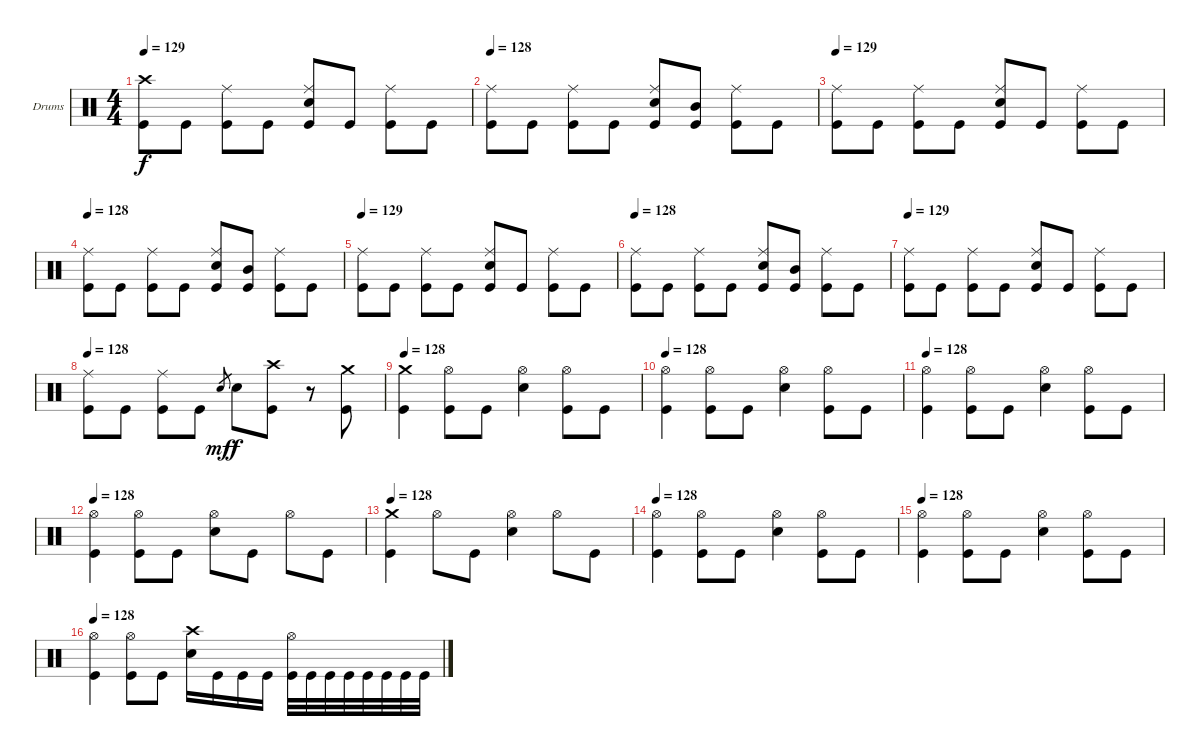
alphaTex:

\bracketExtendMode groupsimilarinstruments
\firstSystemTrackNameOrientation horizontal
\otherSystemsTrackNameOrientation horizontal
\track ("Drumkit" "Drums") {instrument percussion}
\staff {score}
\articulation defaults
\ts (4 4)
\tempo 129
\clef neutral
\ks c
("Crash high (hit)" "Kick (hit)").8{dy f} "Kick (hit)".8 ("Ride (middle)" "Kick (hit)").8 "Kick (hit)".8 ("Ride (middle)" "Snare (hit) 2" "Kick (hit)").8 "Kick (hit)".8 ("Ride (middle)" "Kick (hit)").8 "Kick (hit)".8 |
\tempo 128
("Ride (middle)" "Kick (hit)").8 "Kick (hit)".8 ("Ride (middle)" "Kick (hit)").8 "Kick (hit)".8 ("Ride (middle)" "Snare (hit) 2" "Kick (hit)").8 ("Mid Tom (hit)" "Kick (hit)").8 ("Ride (middle)" "Kick (hit)").8 "Kick (hit)".8 |
\tempo 129
("Ride (middle)" "Kick (hit)").8 "Kick (hit)".8 ("Ride (middle)" "Kick (hit)").8 "Kick (hit)".8 ("Ride (middle)" "Snare (hit) 2" "Kick (hit)").8 "Kick (hit)".8 ("Ride (middle)" "Kick (hit)").8 "Kick (hit)".8 |
\tempo 128
("Ride (middle)" "Kick (hit)").8 "Kick (hit)".8 ("Ride (middle)" "Kick (hit)").8 "Kick (hit)".8 ("Ride (middle)" "Snare (hit) 2" "Kick (hit)").8 ("Mid Tom (hit)" "Kick (hit)").8 ("Ride (middle)" "Kick (hit)").8 "Kick (hit)".8 |
\tempo 129
("Ride (middle)" "Kick (hit)").8 "Kick (hit)".8 ("Ride (middle)" "Kick (hit)").8 "Kick (hit)".8 ("Ride (middle)" "Snare (hit) 2" "Kick (hit)").8 "Kick (hit)".8 ("Ride (middle)" "Kick (hit)").8 "Kick (hit)".8 |
\tempo 128
("Ride (middle)" "Kick (hit)").8 "Kick (hit)".8 ("Ride (middle)" "Kick (hit)").8 "Kick (hit)".8 ("Ride (middle)" "Snare (hit) 2" "Kick (hit)").8 ("Mid Tom (hit)" "Kick (hit)").8 ("Ride (middle)" "Kick (hit)").8 "Kick (hit)".8 |
\tempo 129
("Ride (middle)" "Kick (hit)").8 "Kick (hit)".8 ("Ride (middle)" "Kick (hit)").8 "Kick (hit)".8 ("Ride (middle)" "Snare (hit) 2" "Kick (hit)").8 "Kick (hit)".8 ("Ride (middle)" "Kick (hit)").8 "Kick (hit)".8 |
\tempo 128
("Ride (middle)" "Kick (hit)").8 "Kick (hit)".8 ("Ride (middle)" "Kick (hit)").8 "Kick (hit)".8 "Snare (hit) 2".8{gr dy mf} "Snare (hit) 2".8{dy f} ("Crash high (hit)" "Kick (hit)").8 r.8 ("Crash medium (hit)" "Kick (hit)").8 |
\tempo 128
("Crash medium (hit)" "Kick (hit)").4 ("Hi-Hat (open)" "Kick (hit)").8 "Kick (hit)".8 ("Hi-Hat (open)" "Snare (hit) 2").4 ("Hi-Hat (open)" "Kick (hit)").8 "Kick (hit)".8 |
\tempo 128
("Hi-Hat (open)" "Kick (hit)").4 ("Hi-Hat (open)" "Kick (hit)").8 "Kick (hit)".8 ("Hi-Hat (open)" "Snare (hit) 2").4 ("Hi-Hat (open)" "Kick (hit)").8 "Kick (hit)".8 |
\tempo 128
("Hi-Hat (open)" "Kick (hit)").4 ("Hi-Hat (open)" "Kick (hit)").8 "Kick (hit)".8 ("Hi-Hat (open)" "Snare (hit) 2").4 ("Hi-Hat (open)" "Kick (hit)").8 "Kick (hit)".8 |
\tempo 128
("Hi-Hat (open)" "Kick (hit)").4 ("Hi-Hat (open)" "Kick (hit)").8 "Kick (hit)".8 ("Hi-Hat (open)" "Snare (hit) 2").8 "Kick (hit)".8 "Hi-Hat (open)".8 "Kick (hit)".8 |
\tempo 128
("Crash medium (hit)" "Kick (hit)").4 "Hi-Hat (open)".8 "Kick (hit)".8 ("Hi-Hat (open)" "Snare (hit) 2").4 "Hi-Hat (open)".8 "Kick (hit)".8 |
\tempo 128
("Hi-Hat (open)" "Kick (hit)").4 ("Hi-Hat (open)" "Kick (hit)").8 "Kick (hit)".8 ("Hi-Hat (open)" "Snare (hit) 2").4 ("Hi-Hat (open)" "Kick (hit)").8 "Kick (hit)".8 |
\tempo 128
("Hi-Hat (open)" "Kick (hit)").4 ("Hi-Hat (open)" "Kick (hit)").8 "Kick (hit)".8 ("Hi-Hat (open)" "Snare (hit) 2").4 ("Hi-Hat (open)" "Kick (hit)").8 "Kick (hit)".8 |
\tempo 128
("Hi-Hat (open)" "Kick (hit)").4 ("Hi-Hat (open)" "Kick (hit)").8 "Kick (hit)".8 ("Crash high (hit)" "Snare (hit) 2").16 "Kick (hit)".16 "Kick (hit)".16 "Kick (hit)".16 ("Hi-Hat (open)" "Kick (hit)").32 "Kick (hit)".32 "Kick (hit)".32 "Kick (hit)".32 "Kick (hit)".32 "Kick (hit)".32 "Kick (hit)".32 "Kick (hit)".32
